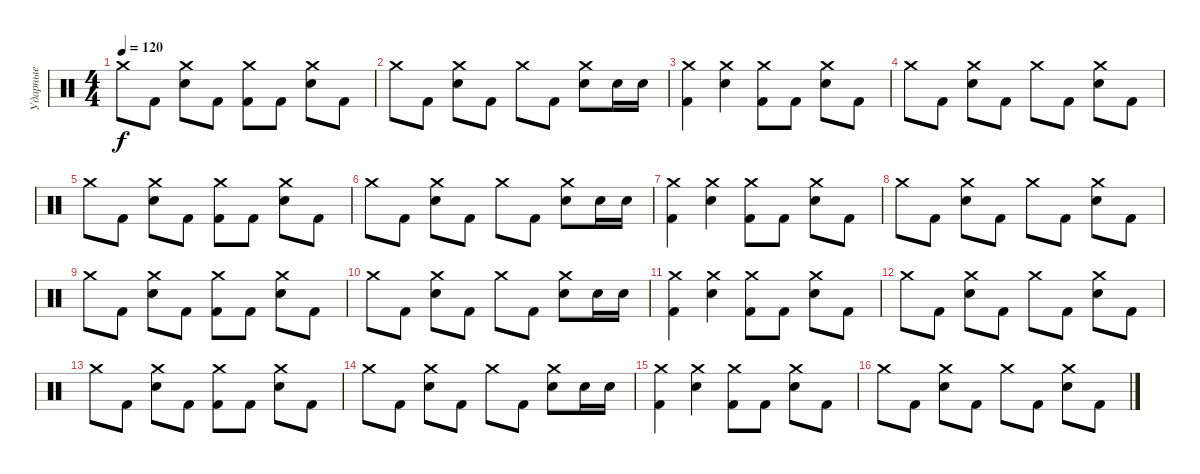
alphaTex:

\track ("Ударные" "Ударные") {instrument percussion}
\staff {score}
\articulation defaults
\ts (4 4)
\tempo 120
\clef neutral
\ks c "Crash medium (hit)".8{dy f} "Kick (hit) 2".8
("Crash medium (hit)" "Electric Snare (hit)").8 "Kick (hit) 2".8 ("Crash medium (hit)" "Kick (hit) 2").8 "Kick (hit) 2".8 ("Crash medium (hit)" "Electric Snare (hit)").8 "Kick (hit) 2".8 |
"Crash medium (hit)".8 "Kick (hit) 2".8 ("Crash medium (hit)" "Electric Snare (hit)").8 "Kick (hit) 2".8 "Crash medium (hit)".8 "Kick (hit) 2".8 ("Crash medium (hit)" "Electric Snare (hit)").8 "Electric Snare (hit)".16 "Electric Snare (hit)".16 |
("Crash medium (hit)" "Kick (hit) 2").4 ("Crash medium (hit)" "Electric Snare (hit)").4 ("Crash medium (hit)" "Kick (hit) 2").8 "Kick (hit) 2".8 ("Crash medium (hit)" "Electric Snare (hit)").8 "Kick (hit) 2".8 |
"Crash medium (hit)".8 "Kick (hit) 2".8 ("Crash medium (hit)" "Electric Snare (hit)").8 "Kick (hit) 2".8 "Crash medium (hit)".8 "Kick (hit) 2".8 ("Crash medium (hit)" "Electric Snare (hit)").8 "Kick (hit) 2".8 |
"Crash medium (hit)".8 "Kick (hit) 2".8 ("Crash medium (hit)" "Electric Snare (hit)").8 "Kick (hit) 2".8 ("Crash medium (hit)" "Kick (hit) 2").8 "Kick (hit) 2".8 ("Crash medium (hit)" "Electric Snare (hit)").8 "Kick (hit) 2".8 |
"Crash medium (hit)".8 "Kick (hit) 2".8 ("Crash medium (hit)" "Electric Snare (hit)").8 "Kick (hit) 2".8 "Crash medium (hit)".8 "Kick (hit) 2".8 ("Crash medium (hit)" "Electric Snare (hit)").8 "Electric Snare (hit)".16 "Electric Snare (hit)".16 |
("Crash medium (hit)" "Kick (hit) 2").4 ("Crash medium (hit)" "Electric Snare (hit)").4 ("Crash medium (hit)" "Kick (hit) 2").8 "Kick (hit) 2".8 ("Crash medium (hit)" "Electric Snare (hit)").8 "Kick (hit) 2".8 |
"Crash medium (hit)".8 "Kick (hit) 2".8 ("Crash medium (hit)" "Electric Snare (hit)").8 "Kick (hit) 2".8 "Crash medium (hit)".8 "Kick (hit) 2".8 ("Crash medium (hit)" "Electric Snare (hit)").8 "Kick (hit) 2".8 |
"Crash medium (hit)".8 "Kick (hit) 2".8 ("Crash medium (hit)" "Electric Snare (hit)").8 "Kick (hit) 2".8 ("Crash medium (hit)" "Kick (hit) 2").8 "Kick (hit) 2".8 ("Crash medium (hit)" "Electric Snare (hit)").8 "Kick (hit) 2".8 |
"Crash medium (hit)".8 "Kick (hit) 2".8 ("Crash medium (hit)" "Electric Snare (hit)").8 "Kick (hit) 2".8 "Crash medium (hit)".8 "Kick (hit) 2".8 ("Crash medium (hit)" "Electric Snare (hit)").8 "Electric Snare (hit)".16 "Electric Snare (hit)".16 |
("Crash medium (hit)" "Kick (hit) 2").4 ("Crash medium (hit)" "Electric Snare (hit)").4 ("Crash medium (hit)" "Kick (hit) 2").8 "Kick (hit) 2".8 ("Crash medium (hit)" "Electric Snare (hit)").8 "Kick (hit) 2".8 |
"Crash medium (hit)".8 "Kick (hit) 2".8 ("Crash medium (hit)" "Electric Snare (hit)").8 "Kick (hit) 2".8 "Crash medium (hit)".8 "Kick (hit) 2".8 ("Crash medium (hit)" "Electric Snare (hit)").8 "Kick (hit) 2".8 |
"Crash medium (hit)".8 "Kick (hit) 2".8 ("Crash medium (hit)" "Electric Snare (hit)").8 "Kick (hit) 2".8 ("Crash medium (hit)" "Kick (hit) 2").8 "Kick (hit) 2".8 ("Crash medium (hit)" "Electric Snare (hit)").8 "Kick (hit) 2".8 |
"Crash medium (hit)".8 "Kick (hit) 2".8 ("Crash medium (hit)" "Electric Snare (hit)").8 "Kick (hit) 2".8 "Crash medium (hit)".8 "Kick (hit) 2".8 ("Crash medium (hit)" "Electric Snare (hit)").8 "Electric Snare (hit)".16 "Electric Snare (hit)".16 |
("Crash medium (hit)" "Kick (hit) 2").4 ("Crash medium (hit)" "Electric Snare (hit)").4 ("Crash medium (hit)" "Kick (hit) 2").8 "Kick (hit) 2".8 ("Crash medium (hit)" "Electric Snare (hit)").8 "Kick (hit) 2".8 |
"Crash medium (hit)".8 "Kick (hit) 2".8 ("Crash medium (hit)" "Electric Snare (hit)").8 "Kick (hit) 2".8 "Crash medium (hit)".8 "Kick (hit) 2".8 ("Crash medium (hit)" "Electric Snare (hit)").8 "Kick (hit) 2".8
